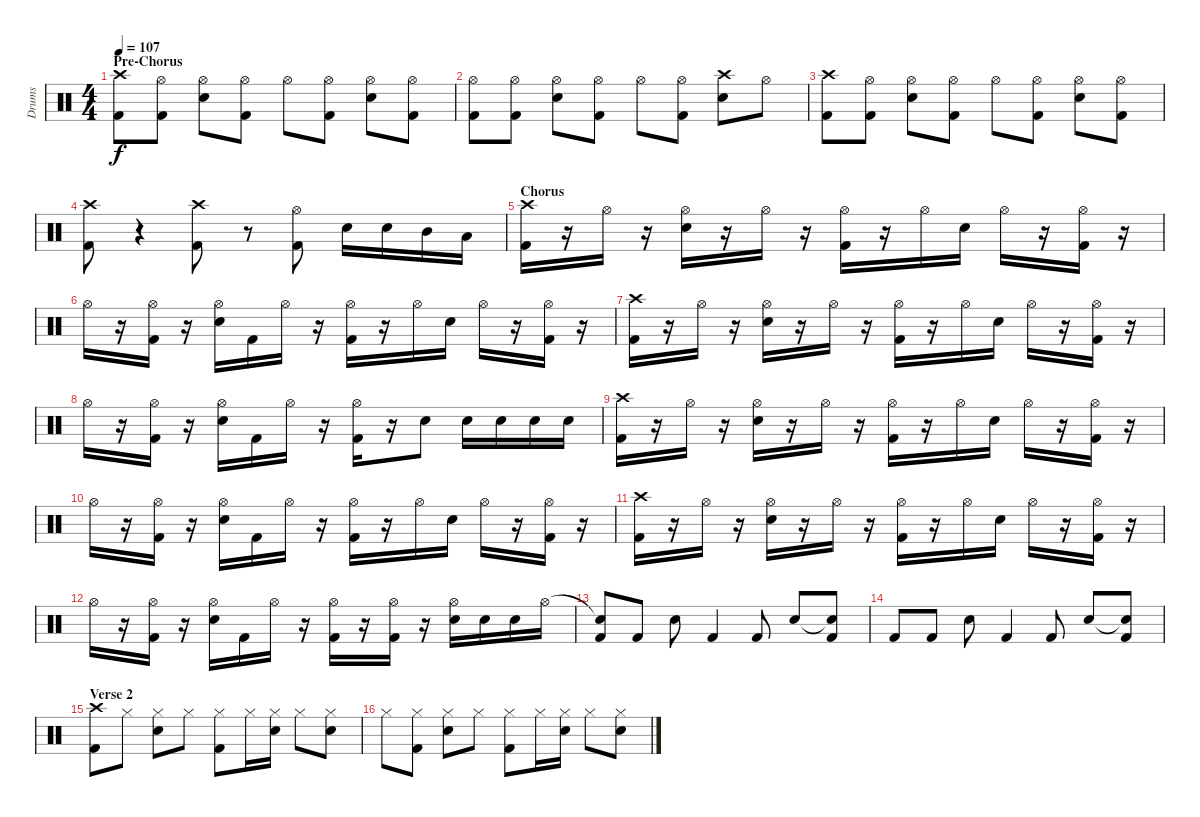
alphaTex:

\track ("Drums" "Drums") {instrument percussion}
\staff {score}
\articulation defaults
\ts (4 4)
\section ("" "Pre-Chorus")
\tempo 107
\clef neutral
\ks c
("Crash high (hit)" "Kick (hit) 2").8{dy f} ("Hi-Hat (open)" "Kick (hit) 2").8 ("Hi-Hat (open)" "Electric Snare (hit)").8 ("Hi-Hat (open)" "Kick (hit) 2").8 "Hi-Hat (open)".8 ("Hi-Hat (open)" "Kick (hit) 2").8 ("Hi-Hat (open)" "Electric Snare (hit)").8 ("Hi-Hat (open)" "Kick (hit) 2").8 |
("Hi-Hat (open)" "Kick (hit) 2").8 ("Hi-Hat (open)" "Kick (hit) 2").8 ("Hi-Hat (open)" "Electric Snare (hit)").8 ("Hi-Hat (open)" "Kick (hit) 2").8 "Hi-Hat (open)".8 ("Hi-Hat (open)" "Kick (hit) 2").8 ("Crash high (hit)" "Electric Snare (hit)").8 "Hi-Hat (open)".8 |
("Crash high (hit)" "Kick (hit) 2").8 ("Hi-Hat (open)" "Kick (hit) 2").8 ("Hi-Hat (open)" "Electric Snare (hit)").8 ("Hi-Hat (open)" "Kick (hit) 2").8 "Hi-Hat (open)".8 ("Hi-Hat (open)" "Kick (hit) 2").8 ("Hi-Hat (open)" "Electric Snare (hit)").8 ("Hi-Hat (open)" "Kick (hit) 2").8 |
("Crash high (hit)" "Kick (hit) 2").8 r.4 ("Crash high (hit)" "Kick (hit) 2").8 r.8 ("Hi-Hat (open)" "Kick (hit) 2").8 "Electric Snare (hit)".16 "Electric Snare (hit)".16 "Mid Tom (hit)".16 "Low Tom (hit)".16 |
\section ("" "Chorus")
("Crash high (hit)" "Kick (hit) 2").16 r.16 "Hi-Hat (open)".16 r.16 ("Hi-Hat (open)" "Electric Snare (hit)").16 r.16 "Hi-Hat (open)".16 r.16 ("Hi-Hat (open)" "Kick (hit) 2").16 r.16 "Hi-Hat (open)".16 "Electric Snare (hit)".16 "Hi-Hat (open)".16 r.16 ("Hi-Hat (open)" "Kick (hit) 2").16 r.16 |
"Hi-Hat (open)".16 r.16 ("Hi-Hat (open)" "Kick (hit) 2").16 r.16 ("Hi-Hat (open)" "Electric Snare (hit)").16 "Kick (hit) 2".16 "Hi-Hat (open)".16 r.16 ("Hi-Hat (open)" "Kick (hit) 2").16 r.16 "Hi-Hat (open)".16 "Electric Snare (hit)".16 "Hi-Hat (open)".16 r.16 ("Hi-Hat (open)" "Kick (hit) 2").16 r.16 |
("Crash high (hit)" "Kick (hit) 2").16 r.16 "Hi-Hat (open)".16 r.16 ("Hi-Hat (open)" "Electric Snare (hit)").16 r.16 "Hi-Hat (open)".16 r.16 ("Hi-Hat (open)" "Kick (hit) 2").16 r.16 "Hi-Hat (open)".16 "Electric Snare (hit)".16 "Hi-Hat (open)".16 r.16 ("Hi-Hat (open)" "Kick (hit) 2").16 r.16 |
"Hi-Hat (open)".16 r.16 ("Hi-Hat (open)" "Kick (hit) 2").16 r.16 ("Hi-Hat (open)" "Electric Snare (hit)").16 "Kick (hit) 2".16 "Hi-Hat (open)".16 r.16 ("Hi-Hat (open)" "Kick (hit) 2").16 r.16 "Electric Snare (hit)".8 "Electric Snare (hit)".16 "Electric Snare (hit)".16 "Electric Snare (hit)".16 "Electric Snare (hit)".16 |
("Crash high (hit)" "Kick (hit) 2").16 r.16 "Hi-Hat (open)".16 r.16 ("Hi-Hat (open)" "Electric Snare (hit)").16 r.16 "Hi-Hat (open)".16 r.16 ("Hi-Hat (open)" "Kick (hit) 2").16 r.16 "Hi-Hat (open)".16 "Electric Snare (hit)".16 "Hi-Hat (open)".16 r.16 ("Hi-Hat (open)" "Kick (hit) 2").16 r.16 |
"Hi-Hat (open)".16 r.16 ("Hi-Hat (open)" "Kick (hit) 2").16 r.16 ("Hi-Hat (open)" "Electric Snare (hit)").16 "Kick (hit) 2".16 "Hi-Hat (open)".16 r.16 ("Hi-Hat (open)" "Kick (hit) 2").16 r.16 "Hi-Hat (open)".16 "Electric Snare (hit)".16 "Hi-Hat (open)".16 r.16 ("Hi-Hat (open)" "Kick (hit) 2").16 r.16 |
("Crash high (hit)" "Kick (hit) 2").16 r.16 "Hi-Hat (open)".16 r.16 ("Hi-Hat (open)" "Electric Snare (hit)").16 r.16 "Hi-Hat (open)".16 r.16 ("Hi-Hat (open)" "Kick (hit) 2").16 r.16 "Hi-Hat (open)".16 "Electric Snare (hit)".16 "Hi-Hat (open)".16 r.16 ("Hi-Hat (open)" "Kick (hit) 2").16 r.16 |
"Hi-Hat (open)".16 r.16 ("Hi-Hat (open)" "Kick (hit) 2").16 r.16 ("Hi-Hat (open)" "Electric Snare (hit)").16 "Kick (hit) 2".16 "Hi-Hat (open)".16 r.16 ("Hi-Hat (open)" "Kick (hit) 2").16 r.16 ("Hi-Hat (open)" "Kick (hit) 2").16 r.16 ("Hi-Hat (open)" "Electric Snare (hit)").16 "Electric Snare (hit)".16 "Electric Snare (hit)".16 "Hi-Hat (open)".16 |
("Snare (hit)"{t} "Kick (hit) 2").8 "Kick (hit) 2".8 "Electric Snare (hit)".8 "Kick (hit) 2".4 "Kick (hit) 2".8 "Electric Snare (hit)".8 ("Snare (hit)"{t} "Kick (hit) 2").8 |
"Kick (hit) 2".8 "Kick (hit) 2".8 "Electric Snare (hit)".8 "Kick (hit) 2".4 "Kick (hit) 2".8 "Electric Snare (hit)".8 ("Snare (hit)"{t} "Kick (hit) 2").8 |
\section ("" "Verse 2")
("Crash high (hit)" "Kick (hit) 2").8 "Hi-Hat (closed)".8 ("Hi-Hat (closed)" "Electric Snare (hit)").8 "Hi-Hat (closed)".8 ("Hi-Hat (closed)" "Kick (hit) 2").8 "Hi-Hat (closed)".16 ("Hi-Hat (closed)" "Electric Snare (hit)").16 "Hi-Hat (closed)".8 ("Hi-Hat (closed)" "Electric Snare (hit)").8 |
"Hi-Hat (closed)".8 ("Hi-Hat (closed)" "Kick (hit) 2").8 ("Hi-Hat (closed)" "Electric Snare (hit)").8 "Hi-Hat (closed)".8 ("Hi-Hat (closed)" "Kick (hit) 2").8 "Hi-Hat (closed)".16 ("Hi-Hat (closed)" "Electric Snare (hit)").16 "Hi-Hat (closed)".8 ("Hi-Hat (closed)" "Electric Snare (hit)").8
